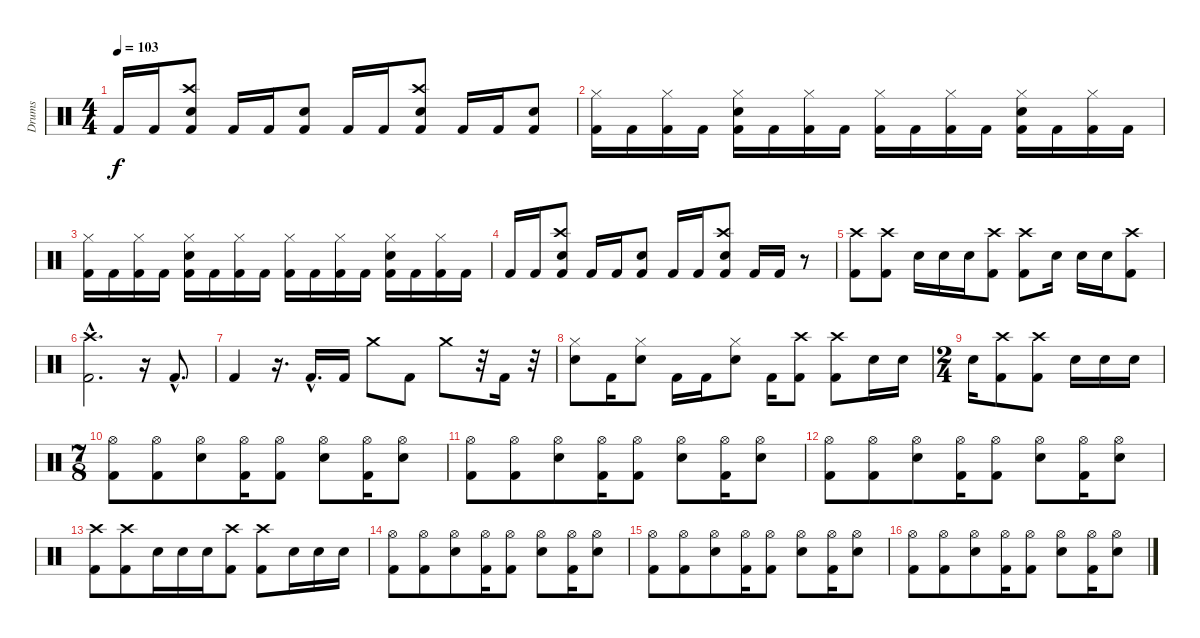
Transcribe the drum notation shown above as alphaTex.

\track ("Drums" "Drums") {instrument percussion}
\staff {score}
\articulation defaults
\ts (4 4)
\tempo 103
\clef neutral
\ks c "Kick (hit) 2".16{dy f} "Kick (hit) 2".16
("Crash high (hit)" "Electric Snare (hit)" "Kick (hit) 2").8 "Kick (hit) 2".16 "Kick (hit) 2".16 ("Electric Snare (hit)" "Kick (hit) 2").8 "Kick (hit) 2".16 "Kick (hit) 2".16 ("Crash high (hit)" "Electric Snare (hit)" "Kick (hit) 2").8 "Kick (hit) 2".16 "Kick (hit) 2".16 ("Electric Snare (hit)" "Kick (hit) 2").8 |
("Hi-Hat (closed)" "Kick (hit) 2").16 "Kick (hit) 2".16 ("Hi-Hat (closed)" "Kick (hit) 2").16 "Kick (hit) 2".16 ("Hi-Hat (closed)" "Electric Snare (hit)" "Kick (hit) 2").16 "Kick (hit) 2".16 ("Hi-Hat (closed)" "Kick (hit) 2").16 "Kick (hit) 2".16 ("Hi-Hat (closed)" "Kick (hit) 2").16 "Kick (hit) 2".16 ("Hi-Hat (closed)" "Kick (hit) 2").16 "Kick (hit) 2".16 ("Hi-Hat (closed)" "Electric Snare (hit)" "Kick (hit) 2").16 "Kick (hit) 2".16 ("Hi-Hat (closed)" "Kick (hit) 2").16 "Kick (hit) 2".16 |
("Hi-Hat (closed)" "Kick (hit) 2").16 "Kick (hit) 2".16 ("Hi-Hat (closed)" "Kick (hit) 2").16 "Kick (hit) 2".16 ("Hi-Hat (closed)" "Electric Snare (hit)" "Kick (hit) 2").16 "Kick (hit) 2".16 ("Hi-Hat (closed)" "Kick (hit) 2").16 "Kick (hit) 2".16 ("Hi-Hat (closed)" "Kick (hit) 2").16 "Kick (hit) 2".16 ("Hi-Hat (closed)" "Kick (hit) 2").16 "Kick (hit) 2".16 ("Hi-Hat (closed)" "Electric Snare (hit)" "Kick (hit) 2").16 "Kick (hit) 2".16 ("Hi-Hat (closed)" "Kick (hit) 2").16 "Kick (hit) 2".16 |
"Kick (hit) 2".16 "Kick (hit) 2".16 ("Crash high (hit)" "Electric Snare (hit)" "Kick (hit) 2").8 "Kick (hit) 2".16 "Kick (hit) 2".16 ("Electric Snare (hit)" "Kick (hit) 2").8 "Kick (hit) 2".16 "Kick (hit) 2".16 ("Crash high (hit)" "Electric Snare (hit)" "Kick (hit) 2").8 "Kick (hit) 2".16 "Kick (hit) 2".16 r.8 |
("Crash high (hit)" "Kick (hit) 2").8 ("Crash high (hit)" "Kick (hit) 2").8 "Electric Snare (hit)".16 "Electric Snare (hit)".16 "Electric Snare (hit)".16 ("Crash high (hit)" "Kick (hit) 2").8 ("Crash high (hit)" "Kick (hit) 2").8 "Electric Snare (hit)".16 "Electric Snare (hit)".16 "Electric Snare (hit)".16 ("Crash high (hit)" "Kick (hit) 2").8 |
("Crash high (hit)"{hac} "Kick (hit) 2"{hac}).2{d} r.16 "Kick (hit) 2"{hac}.8{d} |
"Kick (hit) 2".4 r.16{d} "Kick (hit) 2"{hac}.16{d} "Kick (hit) 2".16 "Crash medium (hit)".8 "Kick (hit) 2".8 "Crash medium (hit)".8 r.32 "Kick (hit) 2".16 r.32 |
("Hi-Hat (closed)" "Electric Snare (hit)").8 "Kick (hit) 2".16 ("Hi-Hat (closed)" "Electric Snare (hit)").8 "Kick (hit) 2".16 "Kick (hit) 2".16 ("Hi-Hat (closed)" "Electric Snare (hit)").8 "Kick (hit) 2".16 ("Crash high (hit)" "Kick (hit) 2").8 ("Crash high (hit)" "Kick (hit) 2").8 "Electric Snare (hit)".16 "Electric Snare (hit)".16 |
\ts (2 4)
"Electric Snare (hit)".16 ("Crash high (hit)" "Kick (hit) 2").8 ("Crash high (hit)" "Kick (hit) 2").8 "Electric Snare (hit)".16 "Electric Snare (hit)".16 "Electric Snare (hit)".16 |
\ts (7 8)
("Hi-Hat (open)" "Kick (hit) 2").8 ("Hi-Hat (open)" "Kick (hit) 2").8 ("Hi-Hat (open)" "Electric Snare (hit)").8 ("Hi-Hat (open)" "Kick (hit) 2").16 ("Hi-Hat (open)" "Kick (hit) 2").8 ("Hi-Hat (open)" "Electric Snare (hit)").8 ("Hi-Hat (open)" "Kick (hit) 2").16 ("Hi-Hat (open)" "Electric Snare (hit)").8 |
("Hi-Hat (open)" "Kick (hit) 2").8 ("Hi-Hat (open)" "Kick (hit) 2").8 ("Hi-Hat (open)" "Electric Snare (hit)").8 ("Hi-Hat (open)" "Kick (hit) 2").16 ("Hi-Hat (open)" "Kick (hit) 2").8 ("Hi-Hat (open)" "Electric Snare (hit)").8 ("Hi-Hat (open)" "Kick (hit) 2").16 ("Hi-Hat (open)" "Electric Snare (hit)").8 |
("Hi-Hat (open)" "Kick (hit) 2").8 ("Hi-Hat (open)" "Kick (hit) 2").8 ("Hi-Hat (open)" "Electric Snare (hit)").8 ("Hi-Hat (open)" "Kick (hit) 2").16 ("Hi-Hat (open)" "Kick (hit) 2").8 ("Hi-Hat (open)" "Electric Snare (hit)").8 ("Hi-Hat (open)" "Kick (hit) 2").16 ("Hi-Hat (open)" "Electric Snare (hit)").8 |
("Crash high (hit)" "Kick (hit) 2").8 ("Crash high (hit)" "Kick (hit) 2").8 "Electric Snare (hit)".16 "Electric Snare (hit)".16 "Electric Snare (hit)".16 ("Crash high (hit)" "Kick (hit) 2").8 ("Crash high (hit)" "Kick (hit) 2").8 "Electric Snare (hit)".16 "Electric Snare (hit)".16 "Electric Snare (hit)".16 |
("Hi-Hat (open)" "Kick (hit) 2").8 ("Hi-Hat (open)" "Kick (hit) 2").8 ("Hi-Hat (open)" "Electric Snare (hit)").8 ("Hi-Hat (open)" "Kick (hit) 2").16 ("Hi-Hat (open)" "Kick (hit) 2").8 ("Hi-Hat (open)" "Electric Snare (hit)").8 ("Hi-Hat (open)" "Kick (hit) 2").16 ("Hi-Hat (open)" "Electric Snare (hit)").8 |
("Hi-Hat (open)" "Kick (hit) 2").8 ("Hi-Hat (open)" "Kick (hit) 2").8 ("Hi-Hat (open)" "Electric Snare (hit)").8 ("Hi-Hat (open)" "Kick (hit) 2").16 ("Hi-Hat (open)" "Kick (hit) 2").8 ("Hi-Hat (open)" "Electric Snare (hit)").8 ("Hi-Hat (open)" "Kick (hit) 2").16 ("Hi-Hat (open)" "Electric Snare (hit)").8 |
("Hi-Hat (open)" "Kick (hit) 2").8 ("Hi-Hat (open)" "Kick (hit) 2").8 ("Hi-Hat (open)" "Electric Snare (hit)").8 ("Hi-Hat (open)" "Kick (hit) 2").16 ("Hi-Hat (open)" "Kick (hit) 2").8 ("Hi-Hat (open)" "Electric Snare (hit)").8 ("Hi-Hat (open)" "Kick (hit) 2").16 ("Hi-Hat (open)" "Electric Snare (hit)").8
